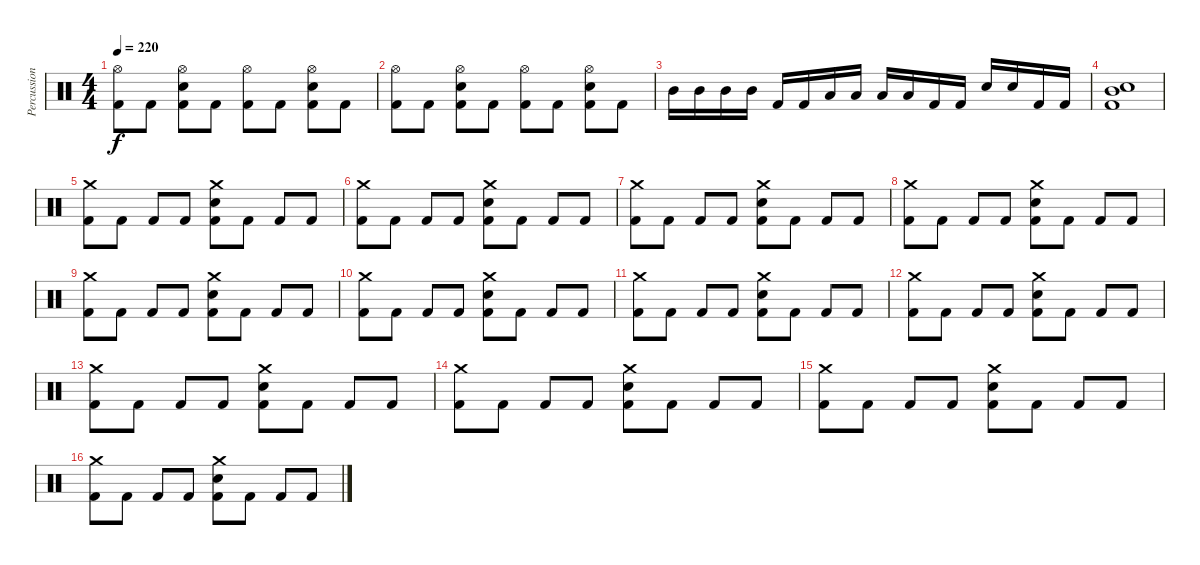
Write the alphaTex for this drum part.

\track ("Percussion" "Percussion") {instrument percussion}
\staff {score}
\articulation defaults
\ts (4 4)
\tempo 220
\clef neutral
\ks c
("Hi-Hat (open)" "Kick (hit) 2").8{dy f} "Kick (hit) 2".8 ("Snare (hit) 2" "Hi-Hat (open)" "Kick (hit) 2").8 "Kick (hit) 2".8 ("Hi-Hat (open)" "Kick (hit) 2").8 "Kick (hit) 2".8 ("Snare (hit) 2" "Hi-Hat (open)" "Kick (hit) 2").8 "Kick (hit) 2".8 |
("Hi-Hat (open)" "Kick (hit) 2").8 "Kick (hit) 2".8 ("Snare (hit) 2" "Hi-Hat (open)" "Kick (hit) 2").8 "Kick (hit) 2".8 ("Hi-Hat (open)" "Kick (hit) 2").8 "Kick (hit) 2".8 ("Snare (hit) 2" "Hi-Hat (open)" "Kick (hit) 2").8 "Kick (hit) 2".8 |
"Mid Tom (hit)".16 "Mid Tom (hit)".16 "Mid Tom (hit)".16 "Mid Tom (hit)".16 "Kick (hit) 2".16 "Kick (hit) 2".16 "Low Tom (hit)".16 "Low Tom (hit)".16 "Low Tom (hit)".16 "Low Tom (hit)".16 "Kick (hit) 2".16 "Kick (hit) 2".16 "Snare (hit) 2".16 "Snare (hit) 2".16 "Kick (hit) 2".16 "Kick (hit) 2".16 |
("Snare (hit) 2" "Mid Tom (hit)" "Kick (hit) 2").1 |
("Crash medium (hit)" "Kick (hit) 2").8 "Kick (hit) 2".8 "Kick (hit) 2".8 "Kick (hit) 2".8 ("Crash medium (hit)" "Snare (hit) 2" "Kick (hit) 2").8 "Kick (hit) 2".8 "Kick (hit) 2".8 "Kick (hit) 2".8 |
("Crash medium (hit)" "Kick (hit) 2").8 "Kick (hit) 2".8 "Kick (hit) 2".8 "Kick (hit) 2".8 ("Crash medium (hit)" "Snare (hit) 2" "Kick (hit) 2").8 "Kick (hit) 2".8 "Kick (hit) 2".8 "Kick (hit) 2".8 |
("Crash medium (hit)" "Kick (hit) 2").8 "Kick (hit) 2".8 "Kick (hit) 2".8 "Kick (hit) 2".8 ("Crash medium (hit)" "Snare (hit) 2" "Kick (hit) 2").8 "Kick (hit) 2".8 "Kick (hit) 2".8 "Kick (hit) 2".8 |
("Crash medium (hit)" "Kick (hit) 2").8 "Kick (hit) 2".8 "Kick (hit) 2".8 "Kick (hit) 2".8 ("Crash medium (hit)" "Snare (hit) 2" "Kick (hit) 2").8 "Kick (hit) 2".8 "Kick (hit) 2".8 "Kick (hit) 2".8 |
("Crash medium (hit)" "Kick (hit) 2").8 "Kick (hit) 2".8 "Kick (hit) 2".8 "Kick (hit) 2".8 ("Crash medium (hit)" "Snare (hit) 2" "Kick (hit) 2").8 "Kick (hit) 2".8 "Kick (hit) 2".8 "Kick (hit) 2".8 |
("Crash medium (hit)" "Kick (hit) 2").8 "Kick (hit) 2".8 "Kick (hit) 2".8 "Kick (hit) 2".8 ("Crash medium (hit)" "Snare (hit) 2" "Kick (hit) 2").8 "Kick (hit) 2".8 "Kick (hit) 2".8 "Kick (hit) 2".8 |
("Crash medium (hit)" "Kick (hit) 2").8 "Kick (hit) 2".8 "Kick (hit) 2".8 "Kick (hit) 2".8 ("Crash medium (hit)" "Snare (hit) 2" "Kick (hit) 2").8 "Kick (hit) 2".8 "Kick (hit) 2".8 "Kick (hit) 2".8 |
("Crash medium (hit)" "Kick (hit) 2").8 "Kick (hit) 2".8 "Kick (hit) 2".8 "Kick (hit) 2".8 ("Crash medium (hit)" "Snare (hit) 2" "Kick (hit) 2").8 "Kick (hit) 2".8 "Kick (hit) 2".8 "Kick (hit) 2".8 |
("Crash medium (hit)" "Kick (hit) 2").8 "Kick (hit) 2".8 "Kick (hit) 2".8 "Kick (hit) 2".8 ("Crash medium (hit)" "Snare (hit) 2" "Kick (hit) 2").8 "Kick (hit) 2".8 "Kick (hit) 2".8 "Kick (hit) 2".8 |
("Crash medium (hit)" "Kick (hit) 2").8 "Kick (hit) 2".8 "Kick (hit) 2".8 "Kick (hit) 2".8 ("Crash medium (hit)" "Snare (hit) 2" "Kick (hit) 2").8 "Kick (hit) 2".8 "Kick (hit) 2".8 "Kick (hit) 2".8 |
("Crash medium (hit)" "Kick (hit) 2").8 "Kick (hit) 2".8 "Kick (hit) 2".8 "Kick (hit) 2".8 ("Crash medium (hit)" "Snare (hit) 2" "Kick (hit) 2").8 "Kick (hit) 2".8 "Kick (hit) 2".8 "Kick (hit) 2".8 |
("Crash medium (hit)" "Kick (hit) 2").8 "Kick (hit) 2".8 "Kick (hit) 2".8 "Kick (hit) 2".8 ("Crash medium (hit)" "Snare (hit) 2" "Kick (hit) 2").8 "Kick (hit) 2".8 "Kick (hit) 2".8 "Kick (hit) 2".8
